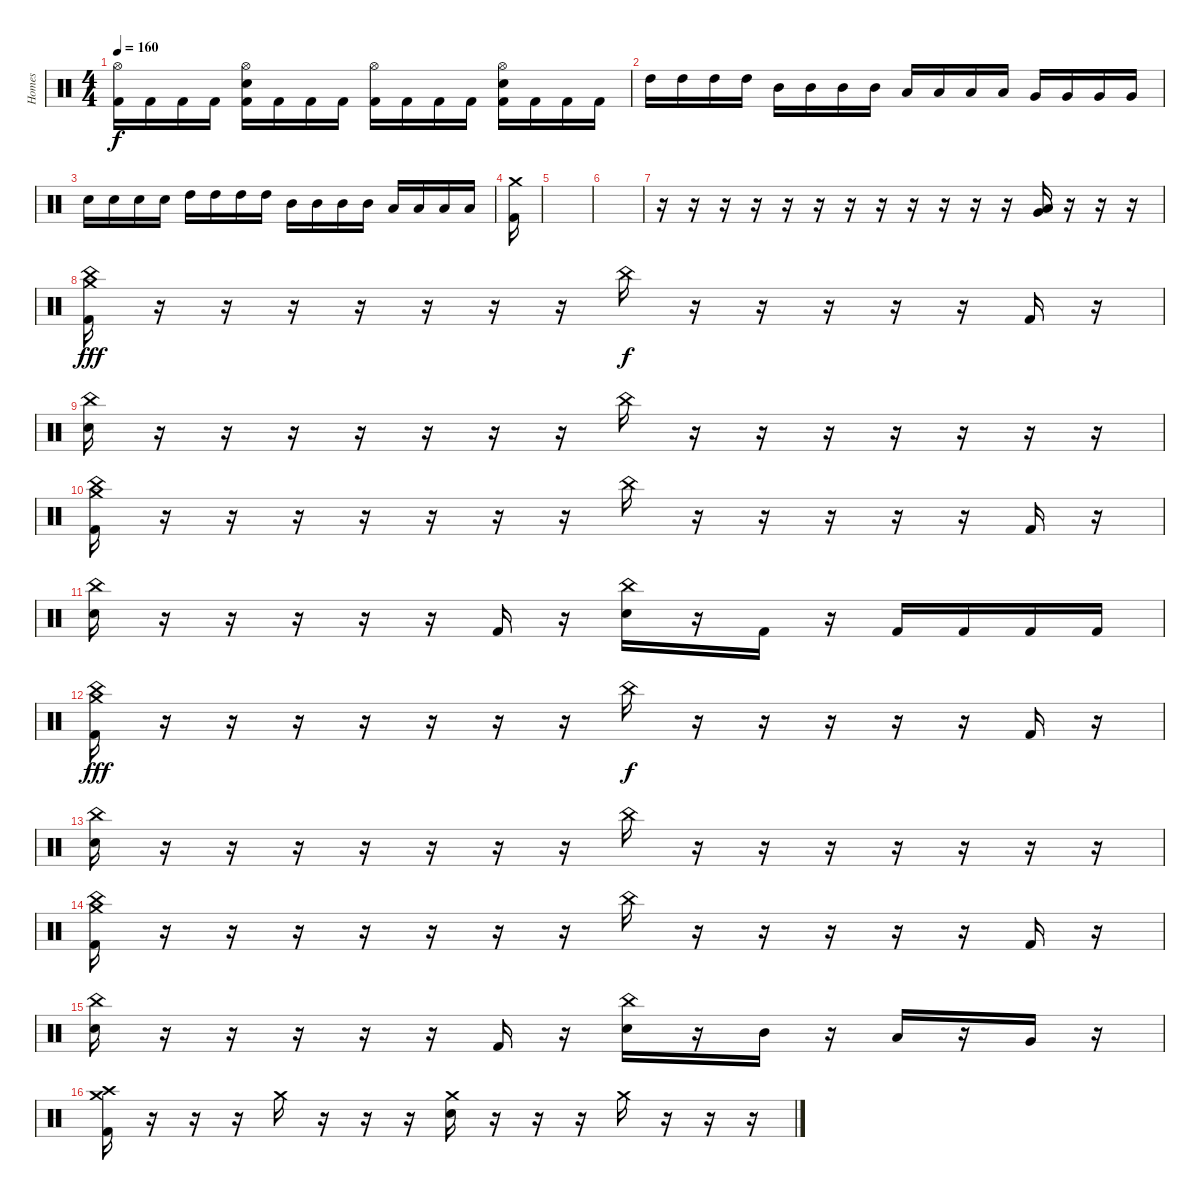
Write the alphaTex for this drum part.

\track ("Homes" "Homes") {instrument percussion}
\staff {score}
\articulation defaults
\ts (4 4)
\tempo 160
\clef neutral
\ks c
("Hi-Hat (open)" "Kick (hit) 2").16{dy f} "Kick (hit) 2".16 "Kick (hit) 2".16 "Kick (hit) 2".16 ("Hi-Hat (open)" "Electric Snare (hit)" "Kick (hit) 2").16 "Kick (hit) 2".16 "Kick (hit) 2".16 "Kick (hit) 2".16 ("Hi-Hat (open)" "Kick (hit) 2").16 "Kick (hit) 2".16 "Kick (hit) 2".16 "Kick (hit) 2".16 ("Hi-Hat (open)" "Electric Snare (hit)" "Kick (hit) 2").16 "Kick (hit) 2".16 "Kick (hit) 2".16 "Kick (hit) 2".16 |
"High Tom (hit)".16 "High Tom (hit)".16 "High Tom (hit)".16 "High Tom (hit)".16 "Mid Tom (hit)".16 "Mid Tom (hit)".16 "Mid Tom (hit)".16 "Mid Tom (hit)".16 "Low Tom (hit)".16 "Low Tom (hit)".16 "Low Tom (hit)".16 "Low Tom (hit)".16 "Very Low Tom (hit)".16 "Very Low Tom (hit)".16 "Very Low Tom (hit)".16 "Very Low Tom (hit)".16 |
"Electric Snare (hit)".16 "Electric Snare (hit)".16 "Electric Snare (hit)".16 "Electric Snare (hit)".16 "High Tom (hit)".16 "High Tom (hit)".16 "High Tom (hit)".16 "High Tom (hit)".16 "Mid Tom (hit)".16 "Mid Tom (hit)".16 "Mid Tom (hit)".16 "Mid Tom (hit)".16 "Low Tom (hit)".16 "Low Tom (hit)".16 "Low Tom (hit)".16 "Low Tom (hit)".16 |
("Crash medium (hit)" "Kick (hit) 2").16 |
|
|
r.16 r.16 r.16 r.16 r.16 r.16 r.16 r.16 r.16 r.16 r.16 r.16 ("Low Tom (hit)" "Very Low Tom (hit)").16 r.16 r.16 r.16 |
("China (hit)" "Crash medium (hit)" "Kick (hit) 2").16{dy fff} r.16 r.16 r.16 r.16 r.16 r.16 r.16 "China (hit)".16{dy f} r.16 r.16 r.16 r.16 r.16 "Kick (hit) 2".16 r.16 |
("China (hit)" "Electric Snare (hit)").16 r.16 r.16 r.16 r.16 r.16 r.16 r.16 "China (hit)".16 r.16 r.16 r.16 r.16 r.16 r.16 r.16 |
("China (hit)" "Crash medium (hit)" "Kick (hit) 2").16 r.16 r.16 r.16 r.16 r.16 r.16 r.16 "China (hit)".16 r.16 r.16 r.16 r.16 r.16 "Kick (hit) 2".16 r.16 |
("China (hit)" "Electric Snare (hit)").16 r.16 r.16 r.16 r.16 r.16 "Kick (hit) 2".16 r.16 ("China (hit)" "Electric Snare (hit)").16 r.16 "Kick (hit) 2".16 r.16 "Kick (hit) 2".16 "Kick (hit) 2".16 "Kick (hit) 2".16 "Kick (hit) 2".16 |
("China (hit)" "Crash medium (hit)" "Kick (hit) 2").16{dy fff} r.16 r.16 r.16 r.16 r.16 r.16 r.16 "China (hit)".16{dy f} r.16 r.16 r.16 r.16 r.16 "Kick (hit) 2".16 r.16 |
("China (hit)" "Electric Snare (hit)").16 r.16 r.16 r.16 r.16 r.16 r.16 r.16 "China (hit)".16 r.16 r.16 r.16 r.16 r.16 r.16 r.16 |
("China (hit)" "Crash medium (hit)" "Kick (hit) 2").16 r.16 r.16 r.16 r.16 r.16 r.16 r.16 "China (hit)".16 r.16 r.16 r.16 r.16 r.16 "Kick (hit) 2".16 r.16 |
("China (hit)" "Electric Snare (hit)").16 r.16 r.16 r.16 r.16 r.16 "Kick (hit) 2".16 r.16 ("China (hit)" "Electric Snare (hit)").16 r.16 "Mid Tom (hit)".16 r.16 "Low Tom (hit)".16 r.16 "Very Low Tom (hit)".16 r.16 |
("Crash high (hit)" "Crash medium (hit)" "Kick (hit) 2").16 r.16 r.16 r.16 "Crash medium (hit)".16 r.16 r.16 r.16 ("Crash medium (hit)" "Electric Snare (hit)").16 r.16 r.16 r.16 "Crash medium (hit)".16 r.16 r.16 r.16
